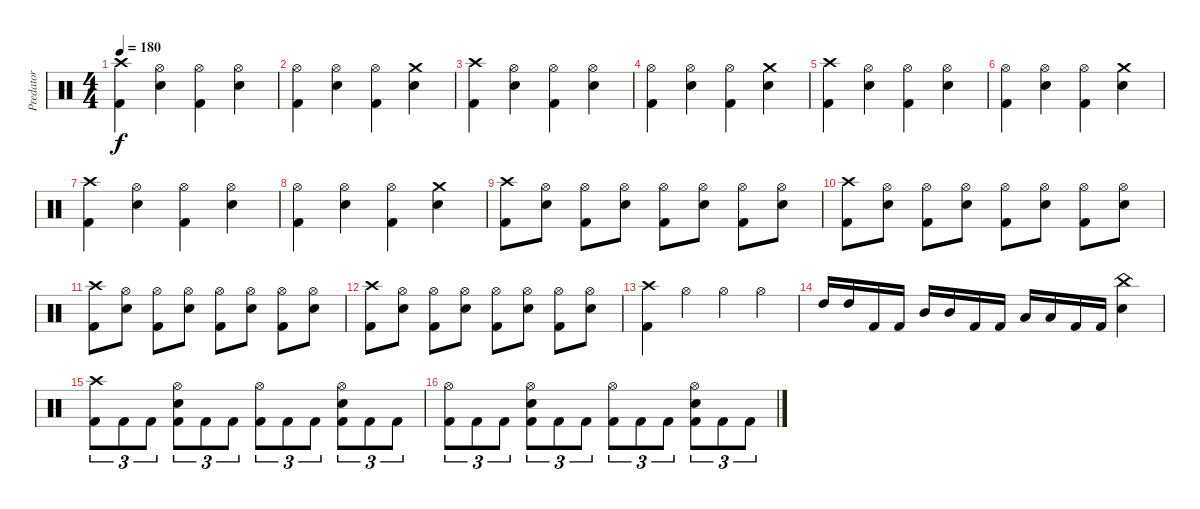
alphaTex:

\track ("Predator" "Predator") {instrument percussion}
\staff {score}
\articulation defaults
\ts (4 4)
\tempo 180
\clef neutral
\ks c
("Kick (hit) 2" "Crash high (hit)").4{dy f} ("Electric Snare (hit)" "Hi-Hat (open)").4 ("Kick (hit) 2" "Hi-Hat (open)").4 ("Electric Snare (hit)" "Hi-Hat (open)").4 |
("Kick (hit) 2" "Hi-Hat (open)").4 ("Electric Snare (hit)" "Hi-Hat (open)").4 ("Kick (hit) 2" "Hi-Hat (open)").4 ("Electric Snare (hit)" "Crash medium (hit)").4 |
("Kick (hit) 2" "Crash high (hit)").4 ("Electric Snare (hit)" "Hi-Hat (open)").4 ("Kick (hit) 2" "Hi-Hat (open)").4 ("Electric Snare (hit)" "Hi-Hat (open)").4 |
("Kick (hit) 2" "Hi-Hat (open)").4 ("Electric Snare (hit)" "Hi-Hat (open)").4 ("Kick (hit) 2" "Hi-Hat (open)").4 ("Electric Snare (hit)" "Crash medium (hit)").4 |
("Kick (hit) 2" "Crash high (hit)").4 ("Electric Snare (hit)" "Hi-Hat (open)").4 ("Kick (hit) 2" "Hi-Hat (open)").4 ("Electric Snare (hit)" "Hi-Hat (open)").4 |
("Kick (hit) 2" "Hi-Hat (open)").4 ("Electric Snare (hit)" "Hi-Hat (open)").4 ("Kick (hit) 2" "Hi-Hat (open)").4 ("Electric Snare (hit)" "Crash medium (hit)").4 |
("Kick (hit) 2" "Crash high (hit)").4 ("Electric Snare (hit)" "Hi-Hat (open)").4 ("Kick (hit) 2" "Hi-Hat (open)").4 ("Electric Snare (hit)" "Hi-Hat (open)").4 |
("Kick (hit) 2" "Hi-Hat (open)").4 ("Electric Snare (hit)" "Hi-Hat (open)").4 ("Kick (hit) 2" "Hi-Hat (open)").4 ("Electric Snare (hit)" "Crash medium (hit)").4 |
("Kick (hit) 2" "Crash high (hit)").8 ("Electric Snare (hit)" "Hi-Hat (open)").8 ("Kick (hit) 2" "Hi-Hat (open)").8 ("Electric Snare (hit)" "Hi-Hat (open)").8 ("Kick (hit) 2" "Hi-Hat (open)").8 ("Electric Snare (hit)" "Hi-Hat (open)").8 ("Kick (hit) 2" "Hi-Hat (open)").8 ("Electric Snare (hit)" "Hi-Hat (open)").8 |
("Kick (hit) 2" "Crash high (hit)").8 ("Electric Snare (hit)" "Hi-Hat (open)").8 ("Kick (hit) 2" "Hi-Hat (open)").8 ("Electric Snare (hit)" "Hi-Hat (open)").8 ("Kick (hit) 2" "Hi-Hat (open)").8 ("Electric Snare (hit)" "Hi-Hat (open)").8 ("Kick (hit) 2" "Hi-Hat (open)").8 ("Electric Snare (hit)" "Hi-Hat (open)").8 |
("Kick (hit) 2" "Crash high (hit)").8 ("Electric Snare (hit)" "Hi-Hat (open)").8 ("Kick (hit) 2" "Hi-Hat (open)").8 ("Electric Snare (hit)" "Hi-Hat (open)").8 ("Kick (hit) 2" "Hi-Hat (open)").8 ("Electric Snare (hit)" "Hi-Hat (open)").8 ("Kick (hit) 2" "Hi-Hat (open)").8 ("Electric Snare (hit)" "Hi-Hat (open)").8 |
("Kick (hit) 2" "Crash high (hit)").8 ("Electric Snare (hit)" "Hi-Hat (open)").8 ("Kick (hit) 2" "Hi-Hat (open)").8 ("Electric Snare (hit)" "Hi-Hat (open)").8 ("Kick (hit) 2" "Hi-Hat (open)").8 ("Electric Snare (hit)" "Hi-Hat (open)").8 ("Kick (hit) 2" "Hi-Hat (open)").8 ("Electric Snare (hit)" "Hi-Hat (open)").8 |
("Kick (hit) 2" "Crash high (hit)").4 "Hi-Hat (open)".4 "Hi-Hat (open)".4 "Hi-Hat (open)".4 |
"High Tom (hit)".16 "High Tom (hit)".16 "Kick (hit) 2".16 "Kick (hit) 2".16 "Mid Tom (hit)".16 "Mid Tom (hit)".16 "Kick (hit) 2".16 "Kick (hit) 2".16 "Low Tom (hit)".16 "Low Tom (hit)".16 "Kick (hit) 2".16 "Kick (hit) 2".16 ("Electric Snare (hit)" "China (hit)").4 |
("Kick (hit) 2" "Crash high (hit)").8{tu (3 2)} "Kick (hit) 2".8{tu (3 2)} "Kick (hit) 2".8{tu (3 2)} ("Kick (hit) 2" "Electric Snare (hit)" "Hi-Hat (open)").8{tu (3 2)} "Kick (hit) 2".8{tu (3 2)} "Kick (hit) 2".8{tu (3 2)} ("Kick (hit) 2" "Hi-Hat (open)").8{tu (3 2)} "Kick (hit) 2".8{tu (3 2)} "Kick (hit) 2".8{tu (3 2)} ("Kick (hit) 2" "Electric Snare (hit)" "Hi-Hat (open)").8{tu (3 2)} "Kick (hit) 2".8{tu (3 2)} "Kick (hit) 2".8{tu (3 2)} |
("Kick (hit) 2" "Hi-Hat (open)").8{tu (3 2)} "Kick (hit) 2".8{tu (3 2)} "Kick (hit) 2".8{tu (3 2)} ("Kick (hit) 2" "Electric Snare (hit)" "Hi-Hat (open)").8{tu (3 2)} "Kick (hit) 2".8{tu (3 2)} "Kick (hit) 2".8{tu (3 2)} ("Kick (hit) 2" "Hi-Hat (open)").8{tu (3 2)} "Kick (hit) 2".8{tu (3 2)} "Kick (hit) 2".8{tu (3 2)} ("Kick (hit) 2" "Electric Snare (hit)" "Hi-Hat (open)").8{tu (3 2)} "Kick (hit) 2".8{tu (3 2)} "Kick (hit) 2".8{tu (3 2)}
